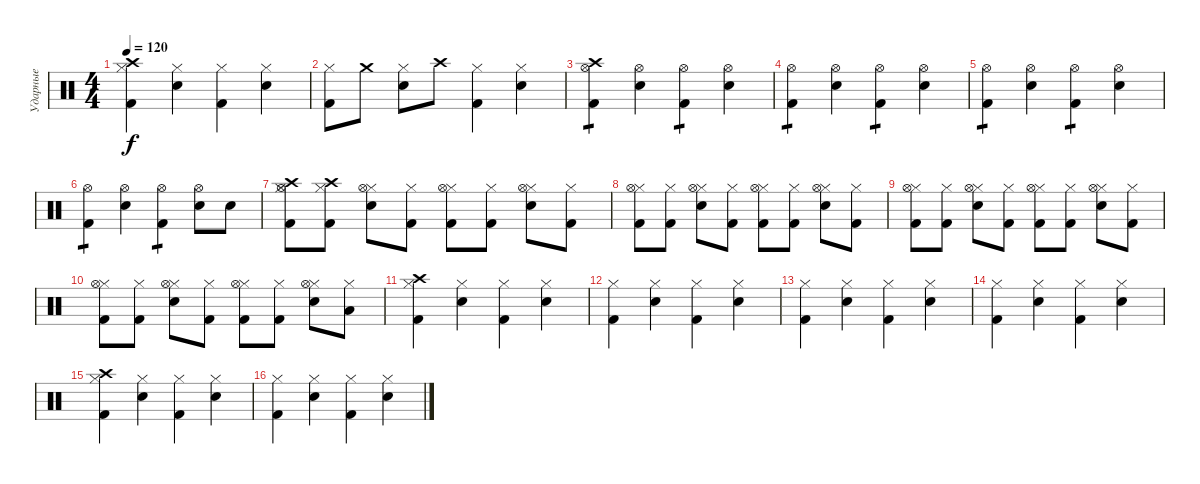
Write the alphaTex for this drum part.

\track ("Ударные" "Ударные") {instrument percussion}
\staff {score}
\articulation defaults
\ts (4 4)
\tempo 120
\clef neutral
\ks c
("Hi-Hat (closed)" "Kick (hit) 2" "Crash high (hit)").4{dy f} ("Hi-Hat (closed)" "Electric Snare (hit)").4 ("Hi-Hat (closed)" "Kick (hit) 2").4 ("Hi-Hat (closed)" "Electric Snare (hit)").4 |
("Hi-Hat (closed)" "Kick (hit) 2").8 "Crash medium (hit)".8 ("Electric Snare (hit)" "Hi-Hat (closed)").8 "Crash high (hit)".8 ("Hi-Hat (closed)" "Kick (hit) 2").4 ("Hi-Hat (closed)" "Electric Snare (hit)").4 |
("Kick (hit) 2" "Hi-Hat (open)" "Crash high (hit)").4{tp 1} ("Electric Snare (hit)" "Hi-Hat (open)").4 ("Kick (hit) 2" "Hi-Hat (open)").4{tp 1} ("Electric Snare (hit)" "Hi-Hat (open)").4 |
("Kick (hit) 2" "Hi-Hat (open)").4{tp 1} ("Electric Snare (hit)" "Hi-Hat (open)").4 ("Kick (hit) 2" "Hi-Hat (open)").4{tp 1} ("Electric Snare (hit)" "Hi-Hat (open)").4 |
("Kick (hit) 2" "Hi-Hat (open)").4{tp 1} ("Electric Snare (hit)" "Hi-Hat (open)").4 ("Kick (hit) 2" "Hi-Hat (open)").4{tp 1} ("Electric Snare (hit)" "Hi-Hat (open)").4 |
("Kick (hit) 2" "Hi-Hat (open)").4{tp 1} ("Electric Snare (hit)" "Hi-Hat (open)").4 ("Kick (hit) 2" "Hi-Hat (open)").4{tp 1} ("Electric Snare (hit)" "Hi-Hat (open)").8 "Electric Snare (hit)".8 |
("Kick (hit) 2" "Hi-Hat (closed)" "Crash high (hit)" "Hi-Hat (open)").8 ("Kick (hit) 2" "Hi-Hat (closed)" "Crash high (hit)").8 ("Electric Snare (hit)" "Hi-Hat (closed)" "Hi-Hat (open)").8 ("Kick (hit) 2" "Hi-Hat (closed)").8 ("Kick (hit) 2" "Hi-Hat (closed)" "Hi-Hat (open)").8 ("Kick (hit) 2" "Hi-Hat (closed)").8 ("Electric Snare (hit)" "Hi-Hat (closed)" "Hi-Hat (open)").8 ("Kick (hit) 2" "Hi-Hat (closed)").8 |
("Kick (hit) 2" "Hi-Hat (closed)" "Hi-Hat (open)").8 ("Kick (hit) 2" "Hi-Hat (closed)").8 ("Electric Snare (hit)" "Hi-Hat (closed)" "Hi-Hat (open)").8 ("Kick (hit) 2" "Hi-Hat (closed)").8 ("Kick (hit) 2" "Hi-Hat (closed)" "Hi-Hat (open)").8 ("Kick (hit) 2" "Hi-Hat (closed)").8 ("Electric Snare (hit)" "Hi-Hat (closed)" "Hi-Hat (open)").8 ("Kick (hit) 2" "Hi-Hat (closed)").8 |
("Kick (hit) 2" "Hi-Hat (closed)" "Hi-Hat (open)").8 ("Kick (hit) 2" "Hi-Hat (closed)").8 ("Electric Snare (hit)" "Hi-Hat (closed)" "Hi-Hat (open)").8 ("Kick (hit) 2" "Hi-Hat (closed)").8 ("Kick (hit) 2" "Hi-Hat (closed)" "Hi-Hat (open)").8 ("Kick (hit) 2" "Hi-Hat (closed)").8 ("Electric Snare (hit)" "Hi-Hat (closed)" "Hi-Hat (open)").8 ("Kick (hit) 2" "Hi-Hat (closed)").8 |
("Kick (hit) 2" "Hi-Hat (closed)" "Hi-Hat (open)").8 ("Kick (hit) 2" "Hi-Hat (closed)").8 ("Electric Snare (hit)" "Hi-Hat (closed)" "Hi-Hat (open)").8 ("Kick (hit) 2" "Hi-Hat (closed)").8 ("Kick (hit) 2" "Hi-Hat (closed)" "Hi-Hat (open)").8 ("Kick (hit) 2" "Hi-Hat (closed)").8 ("Electric Snare (hit)" "Hi-Hat (closed)" "Hi-Hat (open)").8 ("Low Tom (hit)" "Hi-Hat (closed)").8 |
("Hi-Hat (closed)" "Crash high (hit)" "Kick (hit) 2").4 ("Hi-Hat (closed)" "Electric Snare (hit)").4 ("Hi-Hat (closed)" "Kick (hit) 2").4 ("Hi-Hat (closed)" "Electric Snare (hit)").4 |
("Hi-Hat (closed)" "Kick (hit) 2").4 ("Hi-Hat (closed)" "Electric Snare (hit)").4 ("Hi-Hat (closed)" "Kick (hit) 2").4 ("Hi-Hat (closed)" "Electric Snare (hit)").4 |
("Hi-Hat (closed)" "Kick (hit) 2").4 ("Hi-Hat (closed)" "Electric Snare (hit)").4 ("Hi-Hat (closed)" "Kick (hit) 2").4 ("Hi-Hat (closed)" "Electric Snare (hit)").4 |
("Hi-Hat (closed)" "Kick (hit) 2").4 ("Hi-Hat (closed)" "Electric Snare (hit)").4 ("Hi-Hat (closed)" "Kick (hit) 2").4 ("Hi-Hat (closed)" "Electric Snare (hit)").4 |
("Hi-Hat (closed)" "Crash high (hit)" "Kick (hit) 2").4 ("Hi-Hat (closed)" "Electric Snare (hit)").4 ("Hi-Hat (closed)" "Kick (hit) 2").4 ("Hi-Hat (closed)" "Electric Snare (hit)").4 |
("Hi-Hat (closed)" "Kick (hit) 2").4 ("Hi-Hat (closed)" "Electric Snare (hit)").4 ("Hi-Hat (closed)" "Kick (hit) 2").4 ("Hi-Hat (closed)" "Electric Snare (hit)").4
